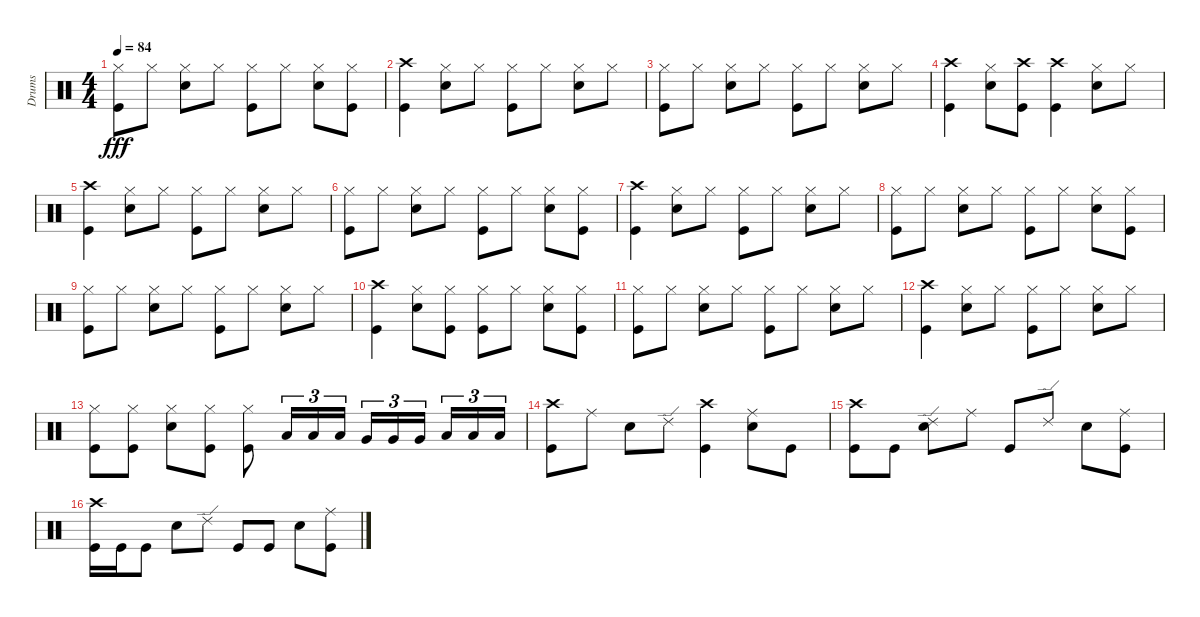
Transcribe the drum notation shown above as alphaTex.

\track ("Drums" "Drums") {instrument percussion}
\staff {score}
\articulation defaults
\ts (4 4)
\tempo 84
\clef neutral
\ks c
("Hi-Hat (closed)" "Kick (hit)").8{dy fff} "Hi-Hat (closed)".8 ("Hi-Hat (closed)" "Snare (hit) 2").8 "Hi-Hat (closed)".8 ("Hi-Hat (closed)" "Kick (hit)").8 "Hi-Hat (closed)".8 ("Hi-Hat (closed)" "Snare (hit) 2").8 ("Hi-Hat (closed)" "Kick (hit)").8 |
("Crash high (hit)" "Kick (hit)").4 ("Hi-Hat (closed)" "Snare (hit) 2").8 "Hi-Hat (closed)".8 ("Hi-Hat (closed)" "Kick (hit)").8 "Hi-Hat (closed)".8 ("Hi-Hat (closed)" "Snare (hit) 2").8 "Hi-Hat (closed)".8 |
("Hi-Hat (closed)" "Kick (hit)").8 "Hi-Hat (closed)".8 ("Hi-Hat (closed)" "Snare (hit) 2").8 "Hi-Hat (closed)".8 ("Hi-Hat (closed)" "Kick (hit)").8 "Hi-Hat (closed)".8 ("Hi-Hat (closed)" "Snare (hit) 2").8 "Hi-Hat (closed)".8 |
("Crash high (hit)" "Kick (hit)").4 ("Hi-Hat (closed)" "Snare (hit) 2").8 ("Crash high (hit)" "Kick (hit)").8 ("Crash high (hit)" "Kick (hit)").4 ("Hi-Hat (closed)" "Snare (hit) 2").8 "Hi-Hat (closed)".8 |
("Crash high (hit)" "Kick (hit)").4 ("Hi-Hat (closed)" "Snare (hit) 2").8 "Hi-Hat (closed)".8 ("Hi-Hat (closed)" "Kick (hit)").8 "Hi-Hat (closed)".8 ("Hi-Hat (closed)" "Snare (hit) 2").8 "Hi-Hat (closed)".8 |
("Hi-Hat (closed)" "Kick (hit)").8 "Hi-Hat (closed)".8 ("Hi-Hat (closed)" "Snare (hit) 2").8 "Hi-Hat (closed)".8 ("Hi-Hat (closed)" "Kick (hit)").8 "Hi-Hat (closed)".8 ("Hi-Hat (closed)" "Snare (hit) 2").8 ("Hi-Hat (closed)" "Kick (hit)").8 |
("Crash high (hit)" "Kick (hit)").4 ("Hi-Hat (closed)" "Snare (hit) 2").8 "Hi-Hat (closed)".8 ("Hi-Hat (closed)" "Kick (hit)").8 "Hi-Hat (closed)".8 ("Hi-Hat (closed)" "Snare (hit) 2").8 "Hi-Hat (closed)".8 |
("Hi-Hat (closed)" "Kick (hit)").8 "Hi-Hat (closed)".8 ("Hi-Hat (closed)" "Snare (hit) 2").8 "Hi-Hat (closed)".8 ("Hi-Hat (closed)" "Kick (hit)").8 "Hi-Hat (closed)".8 ("Hi-Hat (closed)" "Snare (hit) 2").8 ("Hi-Hat (closed)" "Kick (hit)").8 |
("Hi-Hat (closed)" "Kick (hit)").8 "Hi-Hat (closed)".8 ("Hi-Hat (closed)" "Snare (hit) 2").8 "Hi-Hat (closed)".8 ("Hi-Hat (closed)" "Kick (hit)").8 "Hi-Hat (closed)".8 ("Hi-Hat (closed)" "Snare (hit) 2").8 "Hi-Hat (closed)".8 |
("Crash high (hit)" "Kick (hit)").4 ("Hi-Hat (closed)" "Snare (hit) 2").8 ("Hi-Hat (closed)" "Kick (hit)").8 ("Hi-Hat (closed)" "Kick (hit)").8 "Hi-Hat (closed)".8 ("Hi-Hat (closed)" "Snare (hit) 2").8 ("Hi-Hat (closed)" "Kick (hit)").8 |
("Hi-Hat (closed)" "Kick (hit)").8 "Hi-Hat (closed)".8 ("Hi-Hat (closed)" "Snare (hit) 2").8 "Hi-Hat (closed)".8 ("Hi-Hat (closed)" "Kick (hit)").8 "Hi-Hat (closed)".8 ("Hi-Hat (closed)" "Snare (hit) 2").8 "Hi-Hat (closed)".8 |
("Crash high (hit)" "Kick (hit)").4 ("Hi-Hat (closed)" "Snare (hit) 2").8 "Hi-Hat (closed)".8 ("Hi-Hat (closed)" "Kick (hit)").8 "Hi-Hat (closed)".8 ("Hi-Hat (closed)" "Snare (hit) 2").8 "Hi-Hat (closed)".8 |
("Hi-Hat (closed)" "Kick (hit)").8 ("Hi-Hat (closed)" "Kick (hit)").8 ("Hi-Hat (closed)" "Snare (hit) 2").8 ("Hi-Hat (closed)" "Kick (hit)").8 ("Hi-Hat (closed)" "Kick (hit)").8 "Low Tom (hit)".16{tu (3 2)} "Low Tom (hit)".16{tu (3 2)} "Low Tom (hit)".16{tu (3 2)} "Very Low Tom (hit)".16{tu (3 2)} "Very Low Tom (hit)".16{tu (3 2)} "Very Low Tom (hit)".16{tu (3 2) beam splitsecondary} "Low Floor Tom (hit)".16{tu (3 2)} "Low Floor Tom (hit)".16{tu (3 2)} "Low Floor Tom (hit)".16{tu (3 2)} |
("Crash high (hit)" "Kick (hit)").8 "Ride (middle)".8 "Snare (hit) 2".8 "Ride (edge) 2".8 ("Crash high (hit)" "Kick (hit)").4 ("Ride (middle)" "Snare (hit) 2").8 "Kick (hit)".8 |
("Crash high (hit)" "Kick (hit)").8 "Kick (hit)".8 ("Ride (edge) 2" "Snare (hit) 2").8 "Ride (middle)".8 "Kick (hit)".8 "Ride (edge) 2".8 "Snare (hit) 2".8 ("Ride (middle)" "Kick (hit)").8 |
("Crash high (hit)" "Kick (hit)").16 "Kick (hit)".16 "Kick (hit)".8 "Snare (hit) 2".8 "Ride (edge) 2".8 "Kick (hit)".8 "Kick (hit)".8 "Snare (hit) 2".8 ("Ride (middle)" "Kick (hit)").8
